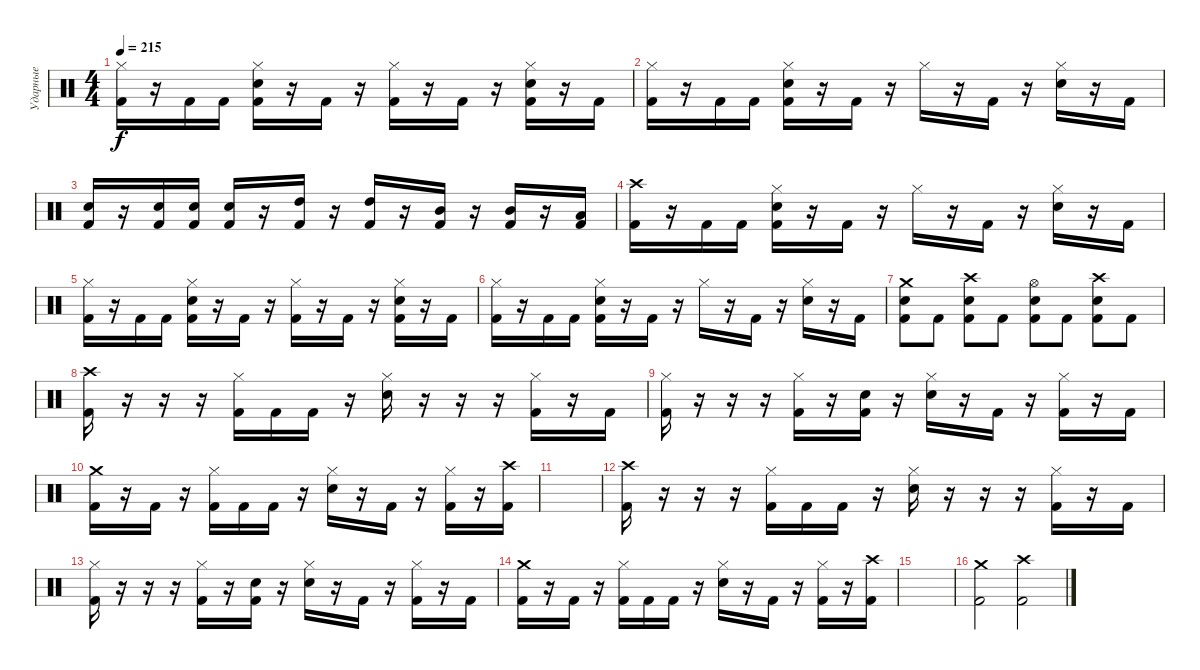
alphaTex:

\track ("Ударные" "Ударные") {instrument percussion}
\staff {score}
\articulation defaults
\ts (4 4)
\tempo 215
\clef neutral
\ks c
("Hi-Hat (closed)" "Kick (hit) 2").16{dy f} r.16 "Kick (hit) 2".16 "Kick (hit) 2".16 ("Hi-Hat (closed)" "Snare (hit) 2" "Kick (hit) 2").16 r.16 "Kick (hit) 2".16 r.16 ("Hi-Hat (closed)" "Kick (hit) 2").16 r.16 "Kick (hit) 2".16 r.16 ("Hi-Hat (closed)" "Snare (hit) 2" "Kick (hit) 2").16 r.16 "Kick (hit) 2".16 |
("Hi-Hat (closed)" "Kick (hit) 2").16 r.16 "Kick (hit) 2".16 "Kick (hit) 2".16 ("Hi-Hat (closed)" "Snare (hit) 2" "Kick (hit) 2").16 r.16 "Kick (hit) 2".16 r.16 "Hi-Hat (closed)".16 r.16 "Kick (hit) 2".16 r.16 ("Hi-Hat (closed)" "Snare (hit) 2").16 r.16 "Kick (hit) 2".16 |
("Snare (hit) 2" "Kick (hit) 2").16 r.16 ("Snare (hit) 2" "Kick (hit) 2").16 ("Snare (hit) 2" "Kick (hit) 2").16 ("Snare (hit) 2" "Kick (hit) 2").16 r.16 ("High Tom (hit)" "Kick (hit) 2").16 r.16 ("High Tom (hit)" "Kick (hit) 2").16 r.16 ("Mid Tom (hit)" "Kick (hit) 2").16 r.16 ("Mid Tom (hit)" "Kick (hit) 2").16 r.16 ("Low Tom (hit)" "Kick (hit) 2").16 |
("Crash high (hit)" "Kick (hit) 2").16 r.16 "Kick (hit) 2".16 "Kick (hit) 2".16 ("Hi-Hat (closed)" "Snare (hit) 2" "Kick (hit) 2").16 r.16 "Kick (hit) 2".16 r.16 "Hi-Hat (closed)".16 r.16 "Kick (hit) 2".16 r.16 ("Hi-Hat (closed)" "Snare (hit) 2").16 r.16 "Kick (hit) 2".16 |
("Hi-Hat (closed)" "Kick (hit) 2").16 r.16 "Kick (hit) 2".16 "Kick (hit) 2".16 ("Hi-Hat (closed)" "Snare (hit) 2" "Kick (hit) 2").16 r.16 "Kick (hit) 2".16 r.16 ("Hi-Hat (closed)" "Kick (hit) 2").16 r.16 "Kick (hit) 2".16 r.16 ("Hi-Hat (closed)" "Snare (hit) 2" "Kick (hit) 2").16 r.16 "Kick (hit) 2".16 |
("Hi-Hat (closed)" "Kick (hit) 2").16 r.16 "Kick (hit) 2".16 "Kick (hit) 2".16 ("Hi-Hat (closed)" "Snare (hit) 2" "Kick (hit) 2").16 r.16 "Kick (hit) 2".16 r.16 "Hi-Hat (closed)".16 r.16 "Kick (hit) 2".16 r.16 ("Hi-Hat (closed)" "Snare (hit) 2").16 r.16 "Kick (hit) 2".16 |
("Crash medium (hit)" "Snare (hit) 2" "Kick (hit) 2").8 "Kick (hit) 2".8 ("Crash high (hit)" "Snare (hit) 2" "Kick (hit) 2").8 "Kick (hit) 2".8 ("Hi-Hat (open)" "Snare (hit) 2" "Kick (hit) 2").8 "Kick (hit) 2".8 ("Crash high (hit)" "Snare (hit) 2" "Kick (hit) 2").8 "Kick (hit) 2".8 |
("Crash high (hit)" "Kick (hit) 2").16 r.16 r.16 r.16 ("Hi-Hat (closed)" "Kick (hit) 2").16 "Kick (hit) 2".16 "Kick (hit) 2".16 r.16 ("Hi-Hat (closed)" "Snare (hit) 2").16 r.16 r.16 r.16 ("Hi-Hat (closed)" "Kick (hit) 2").16 r.16 "Kick (hit) 2".16 |
("Hi-Hat (closed)" "Kick (hit) 2").16 r.16 r.16 r.16 ("Hi-Hat (closed)" "Kick (hit) 2").16 r.16 ("Snare (hit) 2" "Kick (hit) 2").16 r.16 ("Hi-Hat (closed)" "Snare (hit) 2").16 r.16 "Kick (hit) 2".16 r.16 ("Hi-Hat (closed)" "Kick (hit) 2").16 r.16 "Kick (hit) 2".16 |
("Crash medium (hit)" "Kick (hit) 2").16 r.16 "Kick (hit) 2".16 r.16 ("Hi-Hat (closed)" "Kick (hit) 2").16 "Kick (hit) 2".16 "Kick (hit) 2".16 r.16 ("Hi-Hat (closed)" "Snare (hit) 2").16 r.16 "Kick (hit) 2".16 r.16 ("Hi-Hat (closed)" "Kick (hit) 2").16 r.16 ("Crash high (hit)" "Kick (hit) 2").16 |
|
("Crash high (hit)" "Kick (hit) 2").16 r.16 r.16 r.16 ("Hi-Hat (closed)" "Kick (hit) 2").16 "Kick (hit) 2".16 "Kick (hit) 2".16 r.16 ("Hi-Hat (closed)" "Snare (hit) 2").16 r.16 r.16 r.16 ("Hi-Hat (closed)" "Kick (hit) 2").16 r.16 "Kick (hit) 2".16 |
("Hi-Hat (closed)" "Kick (hit) 2").16 r.16 r.16 r.16 ("Hi-Hat (closed)" "Kick (hit) 2").16 r.16 ("Snare (hit) 2" "Kick (hit) 2").16 r.16 ("Hi-Hat (closed)" "Snare (hit) 2").16 r.16 "Kick (hit) 2".16 r.16 ("Hi-Hat (closed)" "Kick (hit) 2").16 r.16 "Kick (hit) 2".16 |
("Crash medium (hit)" "Kick (hit) 2").16 r.16 "Kick (hit) 2".16 r.16 ("Hi-Hat (closed)" "Kick (hit) 2").16 "Kick (hit) 2".16 "Kick (hit) 2".16 r.16 ("Hi-Hat (closed)" "Snare (hit) 2").16 r.16 "Kick (hit) 2".16 r.16 ("Hi-Hat (closed)" "Kick (hit) 2").16 r.16 ("Crash high (hit)" "Kick (hit) 2").16 |
|
("Crash medium (hit)" "Kick (hit) 2").2 ("Crash high (hit)" "Kick (hit) 2").2
